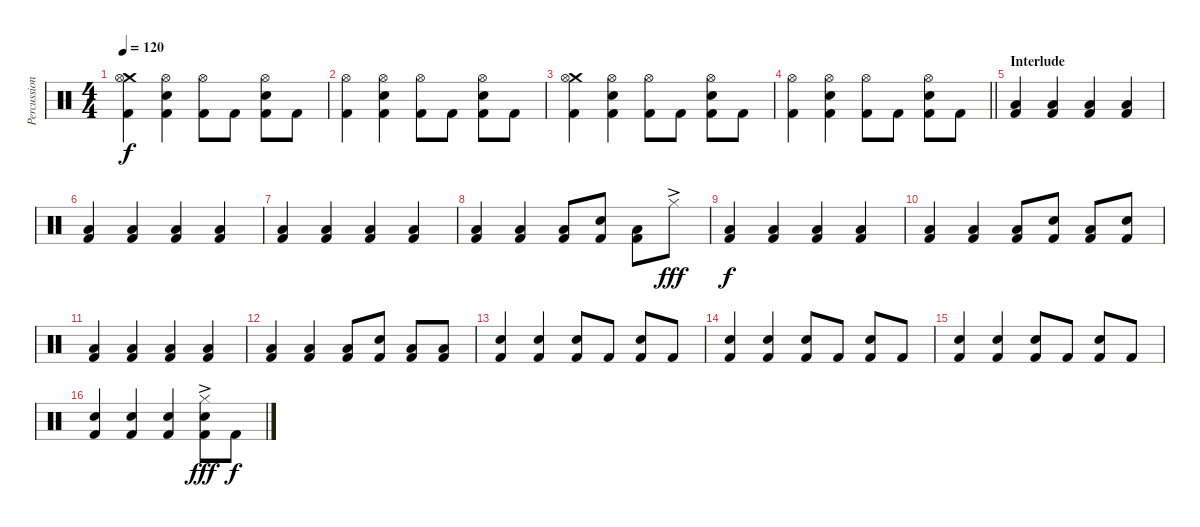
\track ("Percussions" "Percussion") {instrument percussion}
\staff {score}
\articulation defaults
\ts (4 4)
\tempo 120
\clef neutral
\ks c
("Crash medium (hit)" "Hi-Hat (open)" "Kick (hit) 2").4{dy f} ("Hi-Hat (open)" "Electric Snare (hit)" "Kick (hit) 2").4 ("Hi-Hat (open)" "Kick (hit) 2").8 "Kick (hit) 2".8 ("Hi-Hat (open)" "Electric Snare (hit)" "Kick (hit) 2").8 "Kick (hit) 2".8 |
("Hi-Hat (open)" "Kick (hit) 2").4 ("Hi-Hat (open)" "Electric Snare (hit)" "Kick (hit) 2").4 ("Hi-Hat (open)" "Kick (hit) 2").8 "Kick (hit) 2".8 ("Hi-Hat (open)" "Electric Snare (hit)" "Kick (hit) 2").8 "Kick (hit) 2".8 |
("Crash medium (hit)" "Hi-Hat (open)" "Kick (hit) 2").4 ("Hi-Hat (open)" "Electric Snare (hit)" "Kick (hit) 2").4 ("Hi-Hat (open)" "Kick (hit) 2").8 "Kick (hit) 2".8 ("Hi-Hat (open)" "Electric Snare (hit)" "Kick (hit) 2").8 "Kick (hit) 2".8 |
\barLineRight lightlight
("Hi-Hat (open)" "Kick (hit) 2").4 ("Hi-Hat (open)" "Electric Snare (hit)" "Kick (hit) 2").4 ("Hi-Hat (open)" "Kick (hit) 2").8 "Kick (hit) 2".8 ("Hi-Hat (open)" "Electric Snare (hit)" "Kick (hit) 2").8 "Kick (hit) 2".8 |
\section ("" "Interlude")
("Low Floor Tom (hit)" "Kick (hit) 2").4 ("Low Floor Tom (hit)" "Kick (hit) 2").4 ("Low Floor Tom (hit)" "Kick (hit) 2").4 ("Low Floor Tom (hit)" "Kick (hit) 2").4 |
("Low Floor Tom (hit)" "Kick (hit) 2").4 ("Low Floor Tom (hit)" "Kick (hit) 2").4 ("Low Floor Tom (hit)" "Kick (hit) 2").4 ("Low Floor Tom (hit)" "Kick (hit) 2").4 |
("Low Floor Tom (hit)" "Kick (hit) 2").4 ("Low Floor Tom (hit)" "Kick (hit) 2").4 ("Low Floor Tom (hit)" "Kick (hit) 2").4 ("Low Floor Tom (hit)" "Kick (hit) 2").4 |
("Low Floor Tom (hit)" "Kick (hit) 2").4 ("Low Floor Tom (hit)" "Kick (hit) 2").4 ("Low Floor Tom (hit)" "Kick (hit) 2").8 ("Electric Snare (hit)" "Kick (hit) 2").8 ("Low Floor Tom (hit)" "Kick (hit) 2").8 "Hi-Hat (closed)"{ac}.8{dy fff} |
("Low Floor Tom (hit)" "Kick (hit) 2").4{dy f} ("Low Floor Tom (hit)" "Kick (hit) 2").4 ("Low Floor Tom (hit)" "Kick (hit) 2").4 ("Low Floor Tom (hit)" "Kick (hit) 2").4 |
("Low Floor Tom (hit)" "Kick (hit) 2").4 ("Low Floor Tom (hit)" "Kick (hit) 2").4 ("Low Floor Tom (hit)" "Kick (hit) 2").8 ("Electric Snare (hit)" "Kick (hit) 2").8 ("Low Floor Tom (hit)" "Kick (hit) 2").8 ("Electric Snare (hit)" "Kick (hit) 2").8 |
("Low Floor Tom (hit)" "Kick (hit) 2").4 ("Low Floor Tom (hit)" "Kick (hit) 2").4 ("Low Floor Tom (hit)" "Kick (hit) 2").4 ("Low Floor Tom (hit)" "Kick (hit) 2").4 |
("Low Floor Tom (hit)" "Kick (hit) 2").4 ("Low Floor Tom (hit)" "Kick (hit) 2").4 ("Low Floor Tom (hit)" "Kick (hit) 2").8 ("Electric Snare (hit)" "Kick (hit) 2").8 ("Low Floor Tom (hit)" "Kick (hit) 2").8 ("Low Floor Tom (hit)" "Kick (hit) 2").8 |
("Electric Snare (hit)" "Kick (hit) 2").4 ("Electric Snare (hit)" "Kick (hit) 2").4 ("Electric Snare (hit)" "Kick (hit) 2").8 "Kick (hit) 2".8 ("Electric Snare (hit)" "Kick (hit) 2").8 "Kick (hit) 2".8 |
("Electric Snare (hit)" "Kick (hit) 2").4 ("Electric Snare (hit)" "Kick (hit) 2").4 ("Electric Snare (hit)" "Kick (hit) 2").8 "Kick (hit) 2".8 ("Electric Snare (hit)" "Kick (hit) 2").8 "Kick (hit) 2".8 |
("Electric Snare (hit)" "Kick (hit) 2").4 ("Electric Snare (hit)" "Kick (hit) 2").4 ("Electric Snare (hit)" "Kick (hit) 2").8 "Kick (hit) 2".8 ("Electric Snare (hit)" "Kick (hit) 2").8 "Kick (hit) 2".8 |
("Electric Snare (hit)" "Kick (hit) 2").4 ("Electric Snare (hit)" "Kick (hit) 2").4 ("Electric Snare (hit)" "Kick (hit) 2").4 ("Hi-Hat (closed)"{ac} "Electric Snare (hit)" "Kick (hit) 2").8{dy fff} "Kick (hit) 2".8{dy f}
